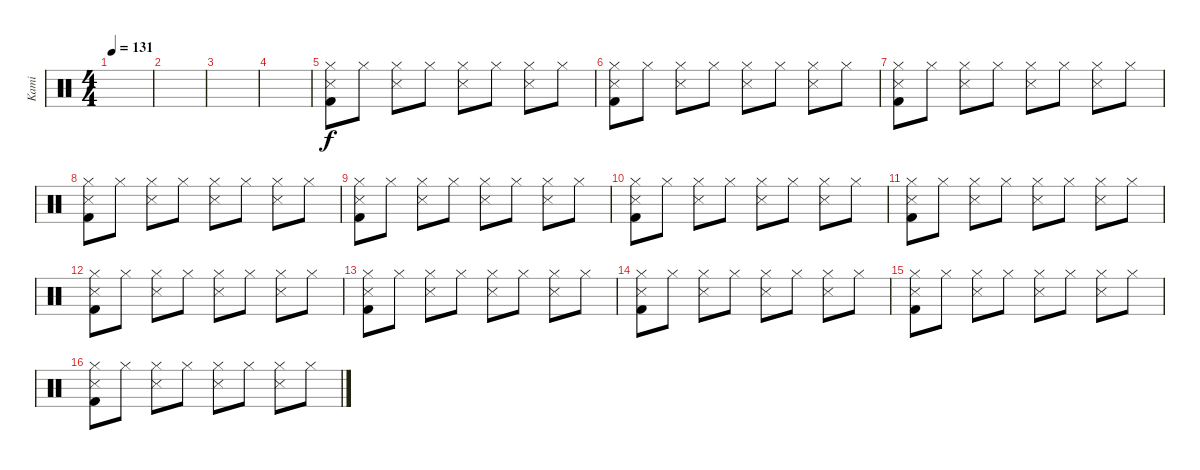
\track ("Kami" "Kami") {instrument percussion}
\staff {score}
\articulation defaults
\ts (4 4)
\tempo 131
\clef neutral
\ks c
|
|
|
|
("Hi-Hat (closed)" "Kick (hit) 2" "Snare (side stick) 3").8 "Hi-Hat (closed)".8 ("Hi-Hat (closed)" "Snare (side stick) 3").8 "Hi-Hat (closed)".8 ("Hi-Hat (closed)" "Snare (side stick) 3").8 "Hi-Hat (closed)".8 ("Hi-Hat (closed)" "Snare (side stick) 3").8 "Hi-Hat (closed)".8 |
("Hi-Hat (closed)" "Kick (hit) 2" "Snare (side stick) 3").8 "Hi-Hat (closed)".8 ("Hi-Hat (closed)" "Snare (side stick) 3").8 "Hi-Hat (closed)".8 ("Hi-Hat (closed)" "Snare (side stick) 3").8 "Hi-Hat (closed)".8 ("Hi-Hat (closed)" "Snare (side stick) 3").8 "Hi-Hat (closed)".8 |
("Hi-Hat (closed)" "Kick (hit) 2" "Snare (side stick) 3").8 "Hi-Hat (closed)".8 ("Hi-Hat (closed)" "Snare (side stick) 3").8 "Hi-Hat (closed)".8 ("Hi-Hat (closed)" "Snare (side stick) 3").8 "Hi-Hat (closed)".8 ("Hi-Hat (closed)" "Snare (side stick) 3").8 "Hi-Hat (closed)".8 |
("Hi-Hat (closed)" "Kick (hit) 2" "Snare (side stick) 3").8 "Hi-Hat (closed)".8 ("Hi-Hat (closed)" "Snare (side stick) 3").8 "Hi-Hat (closed)".8 ("Hi-Hat (closed)" "Snare (side stick) 3").8 "Hi-Hat (closed)".8 ("Hi-Hat (closed)" "Snare (side stick) 3").8 "Hi-Hat (closed)".8 |
("Hi-Hat (closed)" "Kick (hit) 2" "Snare (side stick) 3").8 "Hi-Hat (closed)".8 ("Hi-Hat (closed)" "Snare (side stick) 3").8 "Hi-Hat (closed)".8 ("Hi-Hat (closed)" "Snare (side stick) 3").8 "Hi-Hat (closed)".8 ("Hi-Hat (closed)" "Snare (side stick) 3").8 "Hi-Hat (closed)".8 |
("Hi-Hat (closed)" "Kick (hit) 2" "Snare (side stick) 3").8 "Hi-Hat (closed)".8 ("Hi-Hat (closed)" "Snare (side stick) 3").8 "Hi-Hat (closed)".8 ("Hi-Hat (closed)" "Snare (side stick) 3").8 "Hi-Hat (closed)".8 ("Hi-Hat (closed)" "Snare (side stick) 3").8 "Hi-Hat (closed)".8 |
("Hi-Hat (closed)" "Kick (hit) 2" "Snare (side stick) 3").8 "Hi-Hat (closed)".8 ("Hi-Hat (closed)" "Snare (side stick) 3").8 "Hi-Hat (closed)".8 ("Hi-Hat (closed)" "Snare (side stick) 3").8 "Hi-Hat (closed)".8 ("Hi-Hat (closed)" "Snare (side stick) 3").8 "Hi-Hat (closed)".8 |
("Hi-Hat (closed)" "Kick (hit) 2" "Snare (side stick) 3").8 "Hi-Hat (closed)".8 ("Hi-Hat (closed)" "Snare (side stick) 3").8 "Hi-Hat (closed)".8 ("Hi-Hat (closed)" "Snare (side stick) 3").8 "Hi-Hat (closed)".8 ("Hi-Hat (closed)" "Snare (side stick) 3").8 "Hi-Hat (closed)".8 |
("Hi-Hat (closed)" "Kick (hit) 2" "Snare (side stick) 3").8 "Hi-Hat (closed)".8 ("Hi-Hat (closed)" "Snare (side stick) 3").8 "Hi-Hat (closed)".8 ("Hi-Hat (closed)" "Snare (side stick) 3").8 "Hi-Hat (closed)".8 ("Hi-Hat (closed)" "Snare (side stick) 3").8 "Hi-Hat (closed)".8 |
("Hi-Hat (closed)" "Kick (hit) 2" "Snare (side stick) 3").8 "Hi-Hat (closed)".8 ("Hi-Hat (closed)" "Snare (side stick) 3").8 "Hi-Hat (closed)".8 ("Hi-Hat (closed)" "Snare (side stick) 3").8 "Hi-Hat (closed)".8 ("Hi-Hat (closed)" "Snare (side stick) 3").8 "Hi-Hat (closed)".8 |
("Hi-Hat (closed)" "Kick (hit) 2" "Snare (side stick) 3").8 "Hi-Hat (closed)".8 ("Hi-Hat (closed)" "Snare (side stick) 3").8 "Hi-Hat (closed)".8 ("Hi-Hat (closed)" "Snare (side stick) 3").8 "Hi-Hat (closed)".8 ("Hi-Hat (closed)" "Snare (side stick) 3").8 "Hi-Hat (closed)".8 |
("Hi-Hat (closed)" "Kick (hit) 2" "Snare (side stick) 3").8 "Hi-Hat (closed)".8 ("Hi-Hat (closed)" "Snare (side stick) 3").8 "Hi-Hat (closed)".8 ("Hi-Hat (closed)" "Snare (side stick) 3").8 "Hi-Hat (closed)".8 ("Hi-Hat (closed)" "Snare (side stick) 3").8 "Hi-Hat (closed)".8
